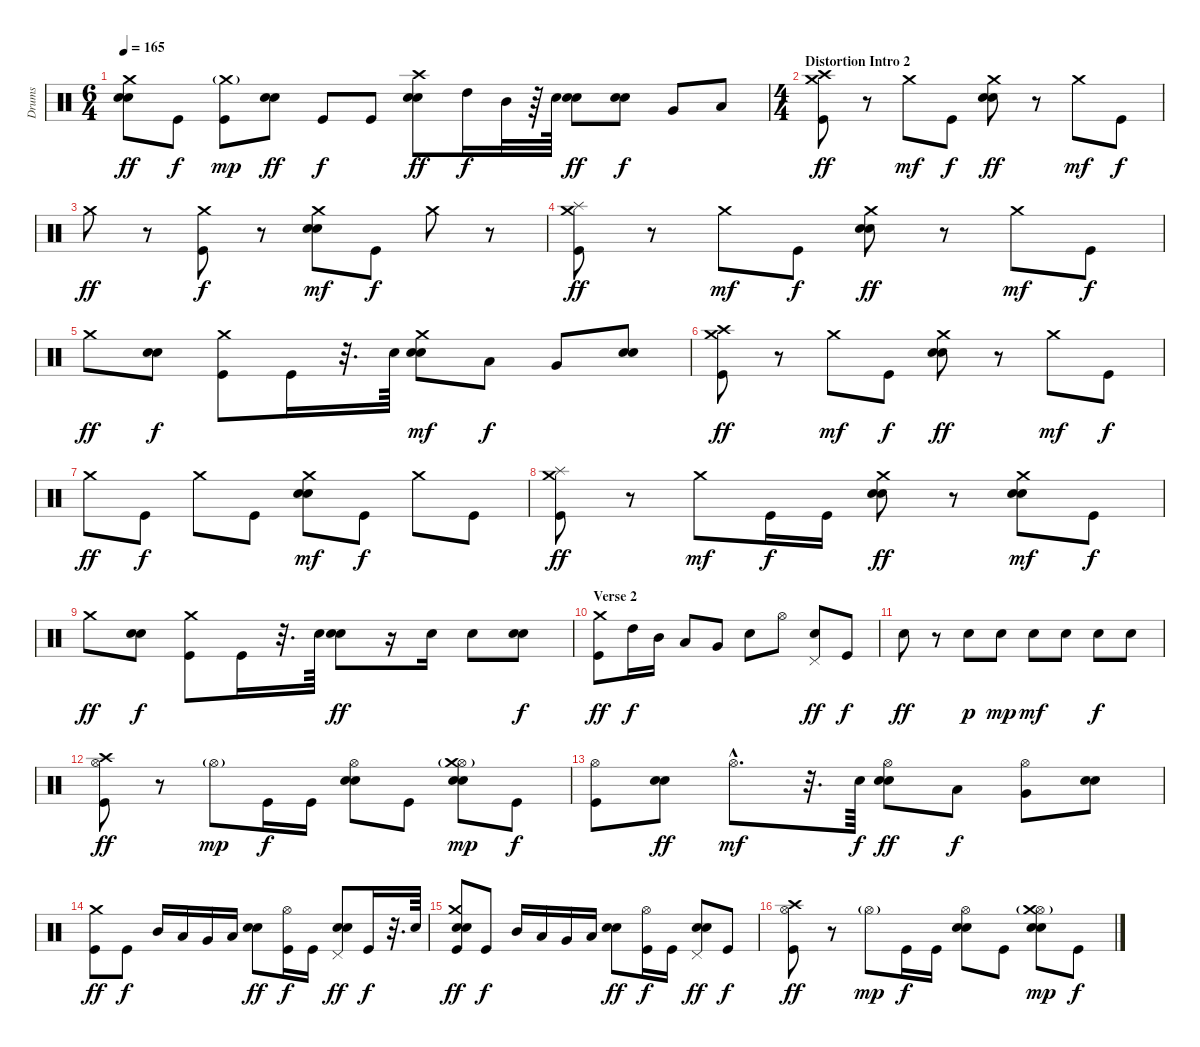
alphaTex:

\track ("Drums" "Drums") {instrument percussion}
\staff {score}
\articulation defaults
\ts (6 4)
\tempo 165
\clef neutral
\ks c
("Electric Snare (hit)" "Electric Snare (hit)" "Crash medium (hit)").8{dy ff} "Kick (hit)".8{dy f} ("Kick (hit)" "Crash medium (hit)"{g}).8{dy mp} ("Electric Snare (hit)" "Electric Snare (hit)").8{dy ff} "Kick (hit)".8{dy f} "Kick (hit)".8 ("Electric Snare (hit)" "Electric Snare (hit)" "Crash high (hit)").8{dy ff} "High Tom (hit)".16{dy f} "Mid Tom (hit)".32 r.64 "Electric Snare (hit)".64 ("Electric Snare (hit)" "Electric Snare (hit)").8{dy ff} ("Electric Snare (hit)" "Electric Snare (hit)").8{dy f} "Very Low Tom (hit)".8 "Low Floor Tom (hit)".8 |
\ts (4 4)
\section ("" "Distortion Intro 2")
("Kick (hit)" "Crash medium (hit)" "Crash high (hit)").8{dy ff} r.8 "Crash medium (hit)".8{dy mf} "Kick (hit)".8{dy f} ("Electric Snare (hit)" "Electric Snare (hit)" "Crash medium (hit)").8{dy ff} r.8 "Crash medium (hit)".8{dy mf} "Kick (hit)".8{dy f} |
"Crash medium (hit)".8{dy ff} r.8 ("Kick (hit)" "Crash medium (hit)").8{dy f} r.8 ("Electric Snare (hit)" "Electric Snare (hit)" "Crash medium (hit)").8{dy mf} "Kick (hit)".8{dy f} "Crash medium (hit)".8 r.8 |
("Kick (hit)" "Crash medium (hit)" "Splash (hit)").8{dy ff} r.8 "Crash medium (hit)".8{dy mf} "Kick (hit)".8{dy f} ("Electric Snare (hit)" "Electric Snare (hit)" "Crash medium (hit)").8{dy ff} r.8 "Crash medium (hit)".8{dy mf} "Kick (hit)".8{dy f} |
"Crash medium (hit)".8{dy ff} ("Electric Snare (hit)" "Electric Snare (hit)").8{dy f} ("Kick (hit)" "Crash medium (hit)").8 "Kick (hit)".16 r.32{d} "Electric Snare (hit)".64 ("Electric Snare (hit)" "Electric Snare (hit)" "Crash medium (hit)").8{dy mf} "Low Tom (hit)".8{dy f} "Very Low Tom (hit)".8 ("Electric Snare (hit)" "Electric Snare (hit)").8 |
("Kick (hit)" "Crash medium (hit)" "Crash high (hit)").8{dy ff} r.8 "Crash medium (hit)".8{dy mf} "Kick (hit)".8{dy f} ("Electric Snare (hit)" "Electric Snare (hit)" "Crash medium (hit)").8{dy ff} r.8 "Crash medium (hit)".8{dy mf} "Kick (hit)".8{dy f} |
"Crash medium (hit)".8{dy ff} "Kick (hit)".8{dy f} "Crash medium (hit)".8 "Kick (hit)".8 ("Electric Snare (hit)" "Electric Snare (hit)" "Crash medium (hit)").8{dy mf} "Kick (hit)".8{dy f} "Crash medium (hit)".8 "Kick (hit)".8 |
("Kick (hit)" "Crash medium (hit)" "Splash (hit)").8{dy ff} r.8 "Crash medium (hit)".8{dy mf} "Kick (hit)".16{dy f} "Kick (hit)".16 ("Electric Snare (hit)" "Electric Snare (hit)" "Crash medium (hit)").8{dy ff} r.8 ("Electric Snare (hit)" "Electric Snare (hit)" "Crash medium (hit)").8{dy mf} "Kick (hit)".8{dy f} |
"Crash medium (hit)".8{dy ff} ("Electric Snare (hit)" "Electric Snare (hit)").8{dy f} ("Kick (hit)" "Crash medium (hit)").8 "Kick (hit)".16 r.32{d} "Electric Snare (hit)".64 ("Electric Snare (hit)" "Electric Snare (hit)").8{dy ff} r.16 "Electric Snare (hit)".16 "Electric Snare (hit)".8 ("Electric Snare (hit)" "Electric Snare (hit)").8{dy f} |
\section ("" "Verse 2")
("Kick (hit)" "Crash medium (hit)").8{dy ff} "High Tom (hit)".16{dy f} "Mid Tom (hit)".16 "Low Tom (hit)".8 "Very Low Tom (hit)".8 "Electric Snare (hit)".8 "Hi-Hat (open)".8 ("Electric Snare (hit)" "Pedal Hi-Hat (hit)").8{dy ff} "Kick (hit)".8{dy f} |
"Electric Snare (hit)".8{dy ff} r.8 "Electric Snare (hit)".8{dy p} "Electric Snare (hit)".8{dy mp} "Electric Snare (hit)".8{dy mf} "Electric Snare (hit)".8 "Electric Snare (hit)".8{dy f} "Electric Snare (hit)".8 |
("Kick (hit)" "Hi-Hat (open)" "Crash high (hit)").8{dy ff} r.8 "Hi-Hat (open)"{g}.8{dy mp} "Kick (hit)".16{dy f} "Kick (hit)".16 ("Electric Snare (hit)" "Electric Snare (hit)" "Hi-Hat (open)").8 "Kick (hit)".8 ("Electric Snare (hit)" "Electric Snare (hit)" "Hi-Hat (open)"{g} "Crash medium (hit)").8{dy mp} "Kick (hit)".8{dy f} |
("Kick (hit)" "Hi-Hat (open)").8 ("Electric Snare (hit)" "Electric Snare (hit)").8{dy ff} "Hi-Hat (open)"{hac}.8{d dy mf} r.32{d} "Electric Snare (hit)".64{dy f} ("Electric Snare (hit)" "Electric Snare (hit)" "Hi-Hat (open)").8{dy ff} "Low Tom (hit)".8{dy f} ("Very Low Tom (hit)" "Hi-Hat (open)").8 ("Electric Snare (hit)" "Electric Snare (hit)").8 |
("Kick (hit)" "Crash medium (hit)").8{dy ff} "Kick (hit)".8{dy f} "Mid Tom (hit)".16 "Low Tom (hit)".16 "Very Low Tom (hit)".16 "Low Floor Tom (hit)".16 ("Electric Snare (hit)" "Electric Snare (hit)").8{dy ff} ("Kick (hit)" "Hi-Hat (open)").16{dy f} "Kick (hit)".16 ("Electric Snare (hit)" "Pedal Hi-Hat (hit)" "Electric Snare (hit)").8{dy ff} "Kick (hit)".16{dy f} r.32{d} "Electric Snare (hit)".64 |
("Kick (hit)" "Electric Snare (hit)" "Electric Snare (hit)" "Crash medium (hit)").8{dy ff} "Kick (hit)".8{dy f} "Mid Tom (hit)".16 "Low Tom (hit)".16 "Very Low Tom (hit)".16 "Low Floor Tom (hit)".16 ("Electric Snare (hit)" "Electric Snare (hit)").8{dy ff} ("Kick (hit)" "Hi-Hat (open)").16{dy f} "Kick (hit)".16 ("Electric Snare (hit)" "Pedal Hi-Hat (hit)" "Electric Snare (hit)").8{dy ff} "Kick (hit)".8{dy f} |
("Kick (hit)" "Hi-Hat (open)" "Crash high (hit)").8{dy ff} r.8 "Hi-Hat (open)"{g}.8{dy mp} "Kick (hit)".16{dy f} "Kick (hit)".16 ("Electric Snare (hit)" "Electric Snare (hit)" "Hi-Hat (open)").8 "Kick (hit)".8 ("Electric Snare (hit)" "Electric Snare (hit)" "Hi-Hat (open)"{g} "Crash medium (hit)").8{dy mp} "Kick (hit)".8{dy f}
